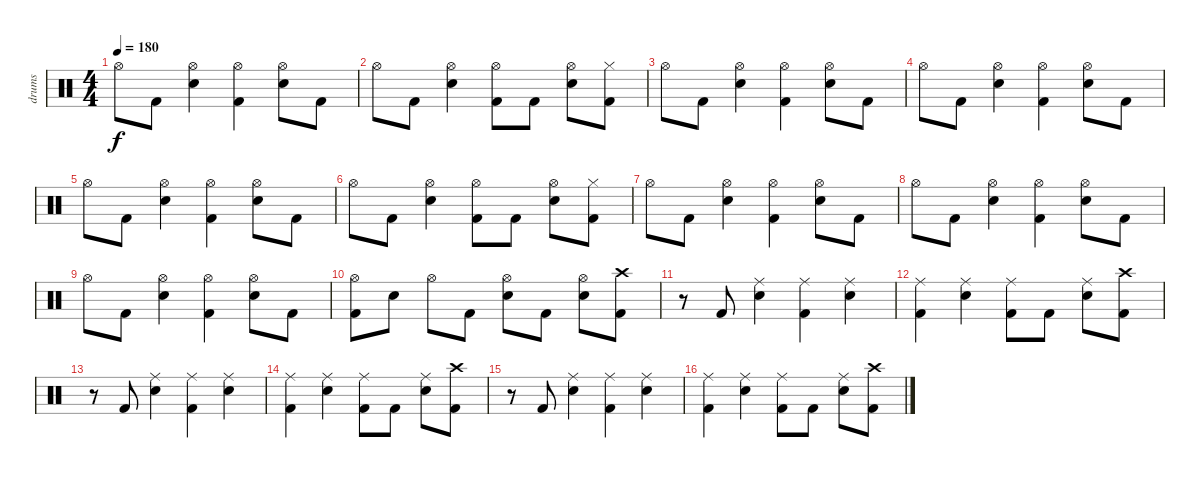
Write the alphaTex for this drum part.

\track ("drums" "drums") {instrument percussion}
\staff {score}
\articulation defaults
\ts (4 4)
\tempo 180
\clef neutral
\ks c "Hi-Hat (open)".8{dy f} "Kick (hit) 2".8
("Hi-Hat (open)" "Electric Snare (hit)").4 ("Hi-Hat (open)" "Kick (hit) 2").4 ("Hi-Hat (open)" "Electric Snare (hit)").8 "Kick (hit) 2".8 |
"Hi-Hat (open)".8 "Kick (hit) 2".8 ("Hi-Hat (open)" "Electric Snare (hit)").4 ("Hi-Hat (open)" "Kick (hit) 2").8 "Kick (hit) 2".8 ("Hi-Hat (open)" "Electric Snare (hit)").8 ("Hi-Hat (closed)" "Kick (hit) 2").8 |
"Hi-Hat (open)".8 "Kick (hit) 2".8 ("Hi-Hat (open)" "Electric Snare (hit)").4 ("Hi-Hat (open)" "Kick (hit) 2").4 ("Hi-Hat (open)" "Electric Snare (hit)").8 "Kick (hit) 2".8 |
"Hi-Hat (open)".8 "Kick (hit) 2".8 ("Hi-Hat (open)" "Electric Snare (hit)").4 ("Hi-Hat (open)" "Kick (hit) 2").4 ("Hi-Hat (open)" "Electric Snare (hit)").8 "Kick (hit) 2".8 |
"Hi-Hat (open)".8 "Kick (hit) 2".8 ("Hi-Hat (open)" "Electric Snare (hit)").4 ("Hi-Hat (open)" "Kick (hit) 2").4 ("Hi-Hat (open)" "Electric Snare (hit)").8 "Kick (hit) 2".8 |
"Hi-Hat (open)".8 "Kick (hit) 2".8 ("Hi-Hat (open)" "Electric Snare (hit)").4 ("Hi-Hat (open)" "Kick (hit) 2").8 "Kick (hit) 2".8 ("Hi-Hat (open)" "Electric Snare (hit)").8 ("Hi-Hat (closed)" "Kick (hit) 2").8 |
"Hi-Hat (open)".8 "Kick (hit) 2".8 ("Hi-Hat (open)" "Electric Snare (hit)").4 ("Hi-Hat (open)" "Kick (hit) 2").4 ("Hi-Hat (open)" "Electric Snare (hit)").8 "Kick (hit) 2".8 |
"Hi-Hat (open)".8 "Kick (hit) 2".8 ("Hi-Hat (open)" "Electric Snare (hit)").4 ("Hi-Hat (open)" "Kick (hit) 2").4 ("Hi-Hat (open)" "Electric Snare (hit)").8 "Kick (hit) 2".8 |
"Hi-Hat (open)".8 "Kick (hit) 2".8 ("Hi-Hat (open)" "Electric Snare (hit)").4 ("Hi-Hat (open)" "Kick (hit) 2").4 ("Hi-Hat (open)" "Electric Snare (hit)").8 "Kick (hit) 2".8 |
("Hi-Hat (open)" "Kick (hit) 2").8 "Electric Snare (hit)".8 "Hi-Hat (open)".8 "Kick (hit) 2".8 ("Hi-Hat (open)" "Electric Snare (hit)").8 "Kick (hit) 2".8 ("Hi-Hat (open)" "Electric Snare (hit)").8 ("Crash high (hit)" "Kick (hit) 2").8 |
r.8 "Kick (hit) 2".8 ("Ride (middle)" "Electric Snare (hit)").4 ("Ride (middle)" "Kick (hit) 2").4 ("Ride (middle)" "Electric Snare (hit)").4 |
("Ride (middle)" "Kick (hit) 2").4 ("Ride (middle)" "Electric Snare (hit)").4 ("Ride (middle)" "Kick (hit) 2").8 "Kick (hit) 2".8 ("Ride (middle)" "Electric Snare (hit)").8 ("Crash high (hit)" "Kick (hit) 2").8 |
r.8 "Kick (hit) 2".8 ("Ride (middle)" "Electric Snare (hit)").4 ("Ride (middle)" "Kick (hit) 2").4 ("Ride (middle)" "Electric Snare (hit)").4 |
("Ride (middle)" "Kick (hit) 2").4 ("Ride (middle)" "Electric Snare (hit)").4 ("Ride (middle)" "Kick (hit) 2").8 "Kick (hit) 2".8 ("Ride (middle)" "Electric Snare (hit)").8 ("Crash high (hit)" "Kick (hit) 2").8 |
r.8 "Kick (hit) 2".8 ("Ride (middle)" "Electric Snare (hit)").4 ("Ride (middle)" "Kick (hit) 2").4 ("Ride (middle)" "Electric Snare (hit)").4 |
("Ride (middle)" "Kick (hit) 2").4 ("Ride (middle)" "Electric Snare (hit)").4 ("Ride (middle)" "Kick (hit) 2").8 "Kick (hit) 2".8 ("Ride (middle)" "Electric Snare (hit)").8 ("Crash high (hit)" "Kick (hit) 2").8
